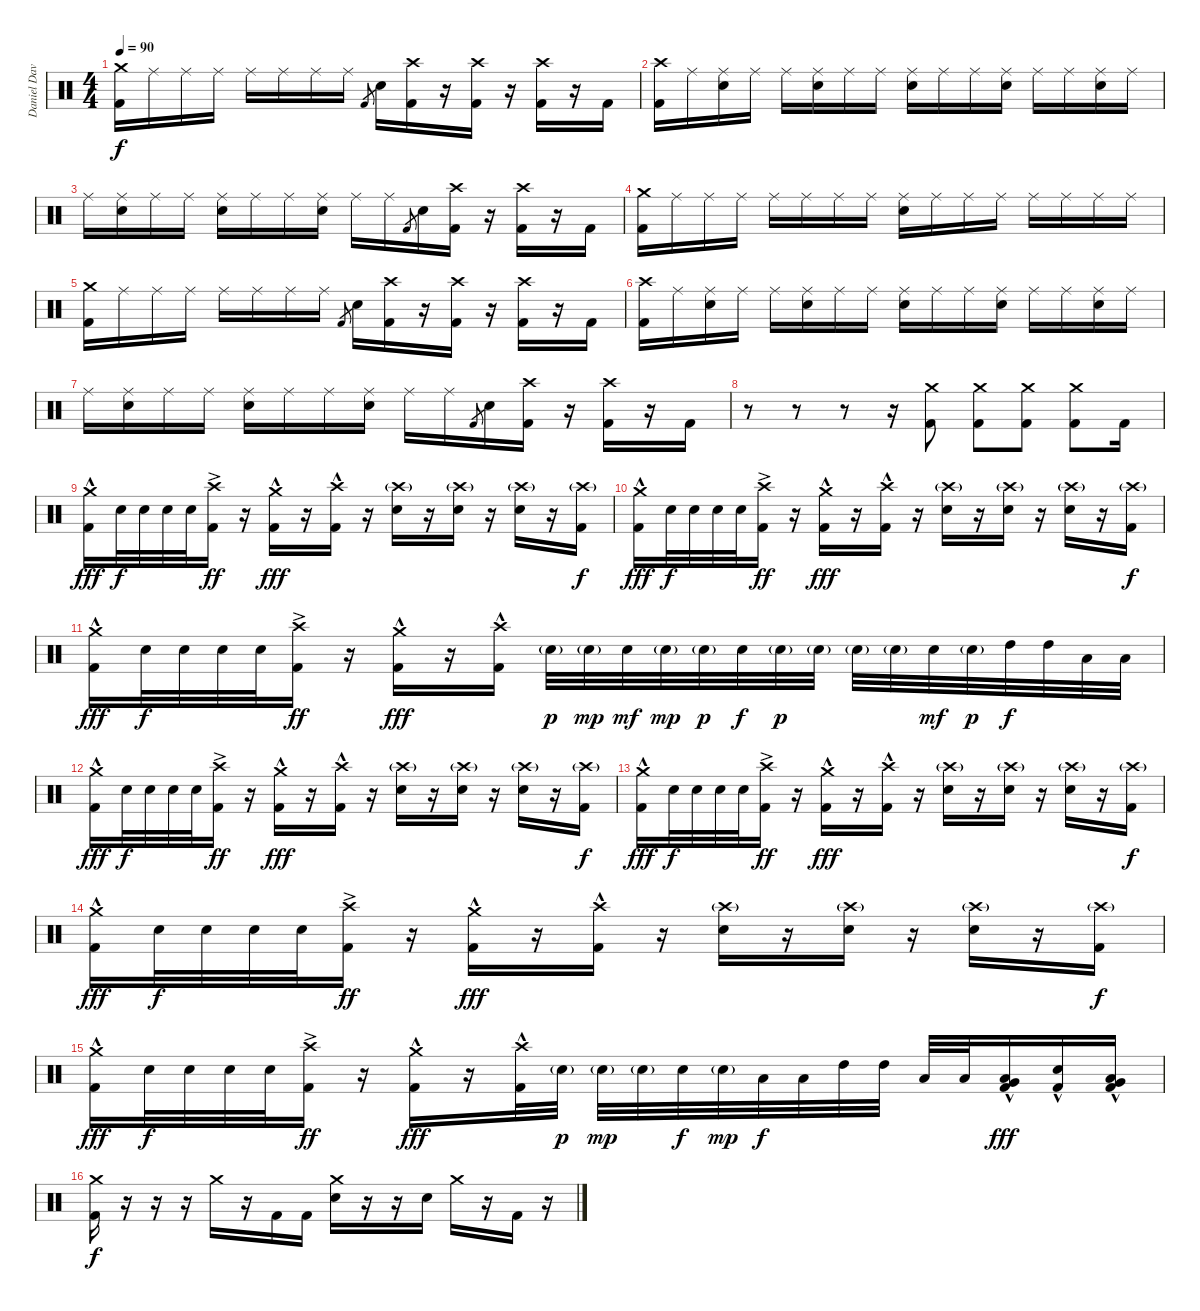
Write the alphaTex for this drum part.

\track ("Daniel Davison" "Daniel Dav") {instrument percussion}
\staff {score}
\articulation defaults
\ts (4 4)
\tempo 90
\clef neutral
\ks c
("Crash medium (hit)" "Kick (hit) 2").16{dy f} "Ride (middle)".16 "Ride (middle)".16 "Ride (middle)".16 "Ride (middle)".16 "Ride (middle)".16 "Ride (middle)".16 "Ride (middle)".16 "Kick (hit) 2".8{gr} "Electric Snare (hit)".16 ("Crash high (hit)" "Kick (hit) 2").16 r.16 ("Crash high (hit)" "Kick (hit) 2").16 r.16 ("Crash high (hit)" "Kick (hit) 2").16 r.16 "Kick (hit) 2".16 |
("Crash high (hit)" "Kick (hit) 2").16 "Ride (middle)".16 ("Ride (middle)" "Electric Snare (hit)").16 "Ride (middle)".16 "Ride (middle)".16 ("Ride (middle)" "Electric Snare (hit)").16 "Ride (middle)".16 "Ride (middle)".16 ("Ride (middle)" "Electric Snare (hit)").16 "Ride (middle)".16 "Ride (middle)".16 ("Ride (middle)" "Electric Snare (hit)").16 "Ride (middle)".16 "Ride (middle)".16 ("Ride (middle)" "Electric Snare (hit)").16 "Ride (middle)".16 |
"Ride (middle)".16 ("Ride (middle)" "Electric Snare (hit)").16 "Ride (middle)".16 "Ride (middle)".16 ("Ride (middle)" "Electric Snare (hit)").16 "Ride (middle)".16 "Ride (middle)".16 ("Ride (middle)" "Electric Snare (hit)").16 "Ride (middle)".16 "Ride (middle)".16 "Kick (hit) 2".8{gr} "Electric Snare (hit)".16 ("Crash high (hit)" "Kick (hit) 2").16 r.16 ("Crash high (hit)" "Kick (hit) 2").16 r.16 "Kick (hit) 2".16 |
("Crash medium (hit)" "Kick (hit) 2").16 "Ride (middle)".16 "Ride (middle)".16 "Ride (middle)".16 "Ride (middle)".16 "Ride (middle)".16 "Ride (middle)".16 "Ride (middle)".16 ("Ride (middle)" "Electric Snare (hit)").16 "Ride (middle)".16 "Ride (middle)".16 "Ride (middle)".16 "Ride (middle)".16 "Ride (middle)".16 "Ride (middle)".16 "Ride (middle)".16 |
("Crash medium (hit)" "Kick (hit) 2").16 "Ride (middle)".16 "Ride (middle)".16 "Ride (middle)".16 "Ride (middle)".16 "Ride (middle)".16 "Ride (middle)".16 "Ride (middle)".16 "Kick (hit) 2".8{gr} "Electric Snare (hit)".16 ("Crash high (hit)" "Kick (hit) 2").16 r.16 ("Crash high (hit)" "Kick (hit) 2").16 r.16 ("Crash high (hit)" "Kick (hit) 2").16 r.16 "Kick (hit) 2".16 |
("Crash high (hit)" "Kick (hit) 2").16 "Ride (middle)".16 ("Ride (middle)" "Electric Snare (hit)").16 "Ride (middle)".16 "Ride (middle)".16 ("Ride (middle)" "Electric Snare (hit)").16 "Ride (middle)".16 "Ride (middle)".16 ("Ride (middle)" "Electric Snare (hit)").16 "Ride (middle)".16 "Ride (middle)".16 ("Ride (middle)" "Electric Snare (hit)").16 "Ride (middle)".16 "Ride (middle)".16 ("Ride (middle)" "Electric Snare (hit)").16 "Ride (middle)".16 |
"Ride (middle)".16 ("Ride (middle)" "Electric Snare (hit)").16 "Ride (middle)".16 "Ride (middle)".16 ("Ride (middle)" "Electric Snare (hit)").16 "Ride (middle)".16 "Ride (middle)".16 ("Ride (middle)" "Electric Snare (hit)").16 "Ride (middle)".16 "Ride (middle)".16 "Kick (hit) 2".8{gr} "Electric Snare (hit)".16 ("Crash high (hit)" "Kick (hit) 2").16 r.16 ("Crash high (hit)" "Kick (hit) 2").16 r.16 "Kick (hit) 2".16 |
r.8 r.8 r.8 r.16 ("Crash medium (hit)" "Kick (hit) 2").8 ("Crash medium (hit)" "Kick (hit) 2").8 ("Crash medium (hit)" "Kick (hit) 2").8 ("Crash medium (hit)" "Kick (hit) 2").8 "Kick (hit) 2".16 |
("Crash medium (hit)" "Kick (hit) 2"{hac}).16{dy fff} "Electric Snare (hit)".32{dy f} "Electric Snare (hit)".32 "Electric Snare (hit)".32 "Electric Snare (hit)".32 ("Crash high (hit)" "Kick (hit) 2"{ac}).16{dy ff} r.16 ("Crash medium (hit)" "Kick (hit) 2"{hac}).16{dy fff} r.16 ("Crash high (hit)" "Kick (hit) 2"{hac}).16 r.16 ("Crash high (hit)"{g} "Electric Snare (hit)").16 r.16 ("Crash high (hit)"{g} "Electric Snare (hit)").16 r.16 ("Crash high (hit)"{g} "Electric Snare (hit)").16 r.16 ("Crash high (hit)"{g} "Kick (hit) 2").16{dy f} |
("Crash medium (hit)" "Kick (hit) 2"{hac}).16{dy fff} "Electric Snare (hit)".32{dy f} "Electric Snare (hit)".32 "Electric Snare (hit)".32 "Electric Snare (hit)".32 ("Crash high (hit)" "Kick (hit) 2"{ac}).16{dy ff} r.16 ("Crash medium (hit)" "Kick (hit) 2"{hac}).16{dy fff} r.16 ("Crash high (hit)" "Kick (hit) 2"{hac}).16 r.16 ("Crash high (hit)"{g} "Electric Snare (hit)").16 r.16 ("Crash high (hit)"{g} "Electric Snare (hit)").16 r.16 ("Crash high (hit)"{g} "Electric Snare (hit)").16 r.16 ("Crash high (hit)"{g} "Kick (hit) 2").16{dy f} |
("Crash medium (hit)" "Kick (hit) 2"{hac}).16{dy fff} "Electric Snare (hit)".32{dy f} "Electric Snare (hit)".32 "Electric Snare (hit)".32 "Electric Snare (hit)".32 ("Crash high (hit)" "Kick (hit) 2"{ac}).16{dy ff} r.16 ("Crash medium (hit)" "Kick (hit) 2"{hac}).16{dy fff} r.16 ("Crash high (hit)" "Kick (hit) 2"{hac}).16 "Electric Snare (hit)"{g}.32{dy p} "Electric Snare (hit)"{g}.32{dy mp} "Electric Snare (hit)".32{dy mf} "Electric Snare (hit)"{g}.32{dy mp} "Electric Snare (hit)"{g}.32{dy p} "Electric Snare (hit)".32{dy f} "Electric Snare (hit)"{g}.32{dy p} "Electric Snare (hit)"{g}.32 "Electric Snare (hit)"{g}.32 "Electric Snare (hit)"{g}.32 "Electric Snare (hit)".32{dy mf} "Electric Snare (hit)"{g}.32{dy p} "High Tom (hit)".32{dy f} "High Tom (hit)".32 "Low Tom (hit)".32 "Low Tom (hit)".32 |
("Crash medium (hit)" "Kick (hit) 2"{hac}).16{dy fff} "Electric Snare (hit)".32{dy f} "Electric Snare (hit)".32 "Electric Snare (hit)".32 "Electric Snare (hit)".32 ("Crash high (hit)" "Kick (hit) 2"{ac}).16{dy ff} r.16 ("Crash medium (hit)" "Kick (hit) 2"{hac}).16{dy fff} r.16 ("Crash high (hit)" "Kick (hit) 2"{hac}).16 r.16 ("Crash high (hit)"{g} "Electric Snare (hit)").16 r.16 ("Crash high (hit)"{g} "Electric Snare (hit)").16 r.16 ("Crash high (hit)"{g} "Electric Snare (hit)").16 r.16 ("Crash high (hit)"{g} "Kick (hit) 2").16{dy f} |
("Crash medium (hit)" "Kick (hit) 2"{hac}).16{dy fff} "Electric Snare (hit)".32{dy f} "Electric Snare (hit)".32 "Electric Snare (hit)".32 "Electric Snare (hit)".32 ("Crash high (hit)" "Kick (hit) 2"{ac}).16{dy ff} r.16 ("Crash medium (hit)" "Kick (hit) 2"{hac}).16{dy fff} r.16 ("Crash high (hit)" "Kick (hit) 2"{hac}).16 r.16 ("Crash high (hit)"{g} "Electric Snare (hit)").16 r.16 ("Crash high (hit)"{g} "Electric Snare (hit)").16 r.16 ("Crash high (hit)"{g} "Electric Snare (hit)").16 r.16 ("Crash high (hit)"{g} "Kick (hit) 2").16{dy f} |
("Crash medium (hit)" "Kick (hit) 2"{hac}).16{dy fff} "Electric Snare (hit)".32{dy f} "Electric Snare (hit)".32 "Electric Snare (hit)".32 "Electric Snare (hit)".32 ("Crash high (hit)" "Kick (hit) 2"{ac}).16{dy ff} r.16 ("Crash medium (hit)" "Kick (hit) 2"{hac}).16{dy fff} r.16 ("Crash high (hit)" "Kick (hit) 2"{hac}).16 r.16 ("Crash high (hit)"{g} "Electric Snare (hit)").16 r.16 ("Crash high (hit)"{g} "Electric Snare (hit)").16 r.16 ("Crash high (hit)"{g} "Electric Snare (hit)").16 r.16 ("Crash high (hit)"{g} "Kick (hit) 2").16{dy f} |
("Crash medium (hit)" "Kick (hit) 2"{hac}).16{dy fff} "Electric Snare (hit)".32{dy f} "Electric Snare (hit)".32 "Electric Snare (hit)".32 "Electric Snare (hit)".32 ("Crash high (hit)" "Kick (hit) 2"{ac}).16{dy ff} r.16 ("Crash medium (hit)" "Kick (hit) 2"{hac}).16{dy fff} r.16 ("Crash high (hit)" "Kick (hit) 2"{hac}).32 "Electric Snare (hit)"{g}.32{dy p} "Electric Snare (hit)"{g}.32{dy mp} "Electric Snare (hit)"{g}.32 "Electric Snare (hit)".32{dy f} "Electric Snare (hit)"{g}.32{dy mp} "Low Tom (hit)".32{dy f} "Low Tom (hit)".32 "High Tom (hit)".32 "High Tom (hit)".32 "Low Tom (hit)".32 "Low Tom (hit)".32 ("Low Tom (hit)"{hac} "Very Low Tom (hit)"{hac} "Kick (hit) 2"{hac}).16{dy fff} ("Electric Snare (hit)"{hac} "Kick (hit) 2"{hac}).16 ("Low Tom (hit)"{hac} "Very Low Tom (hit)"{hac} "Kick (hit) 2"{hac}).16 |
("Crash medium (hit)" "Kick (hit) 2").16{dy f} r.16 r.16 r.16 "Crash medium (hit)".16 r.16 "Kick (hit) 2".16 "Kick (hit) 2".16 ("Crash medium (hit)" "Electric Snare (hit)").16 r.16 r.16 "Electric Snare (hit)".16 "Crash medium (hit)".16 r.16 "Kick (hit) 2".16 r.16
